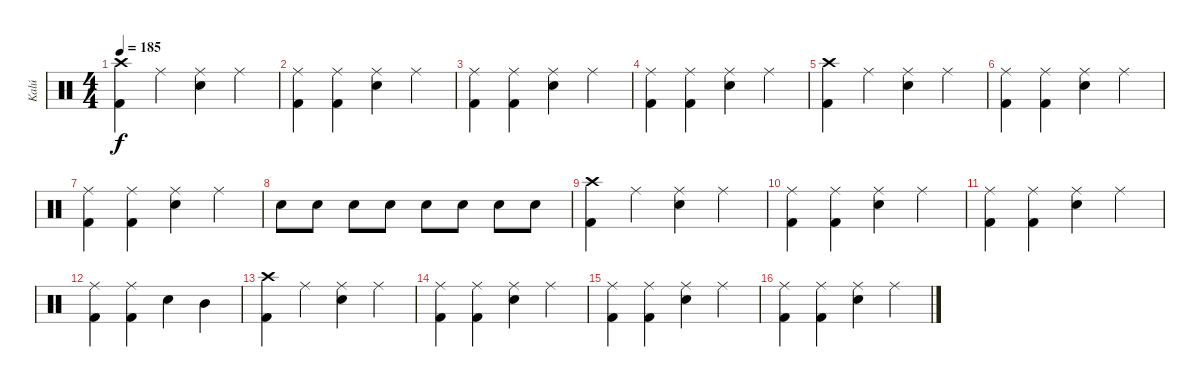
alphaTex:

\track ("Kalú" "Kalú") {instrument percussion}
\staff {score}
\articulation defaults
\ts (4 4)
\tempo 185
\clef neutral
\ks c
("Crash high (hit)" "Kick (hit) 2").4{dy f} "Ride (middle)".4 ("Ride (middle)" "Snare (hit) 2").4 "Ride (middle)".4 |
("Ride (middle)" "Kick (hit) 2").4 ("Ride (middle)" "Kick (hit) 2").4 ("Ride (middle)" "Snare (hit) 2").4 "Ride (middle)".4 |
("Ride (middle)" "Kick (hit) 2").4 ("Ride (middle)" "Kick (hit) 2").4 ("Ride (middle)" "Snare (hit) 2").4 "Ride (middle)".4 |
("Ride (middle)" "Kick (hit) 2").4 ("Ride (middle)" "Kick (hit) 2").4 ("Ride (middle)" "Snare (hit) 2").4 "Ride (middle)".4 |
("Crash high (hit)" "Kick (hit) 2").4 "Ride (middle)".4 ("Ride (middle)" "Snare (hit) 2").4 "Ride (middle)".4 |
("Ride (middle)" "Kick (hit) 2").4 ("Ride (middle)" "Kick (hit) 2").4 ("Ride (middle)" "Snare (hit) 2").4 "Ride (middle)".4 |
("Ride (middle)" "Kick (hit) 2").4 ("Ride (middle)" "Kick (hit) 2").4 ("Ride (middle)" "Snare (hit) 2").4 "Ride (middle)".4 |
"Snare (hit) 2".8{volume 6} "Snare (hit) 2".8{volume 7} "Snare (hit) 2".8{volume 8} "Snare (hit) 2".8{volume 9} "Snare (hit) 2".8{volume 10} "Snare (hit) 2".8{volume 11} "Snare (hit) 2".8{volume 12} "Snare (hit) 2".8{volume 13} |
("Crash high (hit)" "Kick (hit) 2").4 "Ride (middle)".4 ("Ride (middle)" "Snare (hit) 2").4 "Ride (middle)".4 |
("Ride (middle)" "Kick (hit) 2").4 ("Ride (middle)" "Kick (hit) 2").4 ("Ride (middle)" "Snare (hit) 2").4 "Ride (middle)".4 |
("Ride (middle)" "Kick (hit) 2").4 ("Ride (middle)" "Kick (hit) 2").4 ("Ride (middle)" "Snare (hit) 2").4 "Ride (middle)".4 |
("Ride (middle)" "Kick (hit) 2").4 ("Ride (middle)" "Kick (hit) 2").4 "Snare (hit) 2".4 "Mid Tom (hit)".4 |
("Crash high (hit)" "Kick (hit) 2").4 "Ride (middle)".4 ("Ride (middle)" "Snare (hit) 2").4 "Ride (middle)".4 |
("Ride (middle)" "Kick (hit) 2").4 ("Ride (middle)" "Kick (hit) 2").4 ("Ride (middle)" "Snare (hit) 2").4 "Ride (middle)".4 |
("Ride (middle)" "Kick (hit) 2").4 ("Ride (middle)" "Kick (hit) 2").4 ("Ride (middle)" "Snare (hit) 2").4 "Ride (middle)".4 |
("Ride (middle)" "Kick (hit) 2").4 ("Ride (middle)" "Kick (hit) 2").4 ("Ride (middle)" "Snare (hit) 2").4 "Ride (middle)".4
